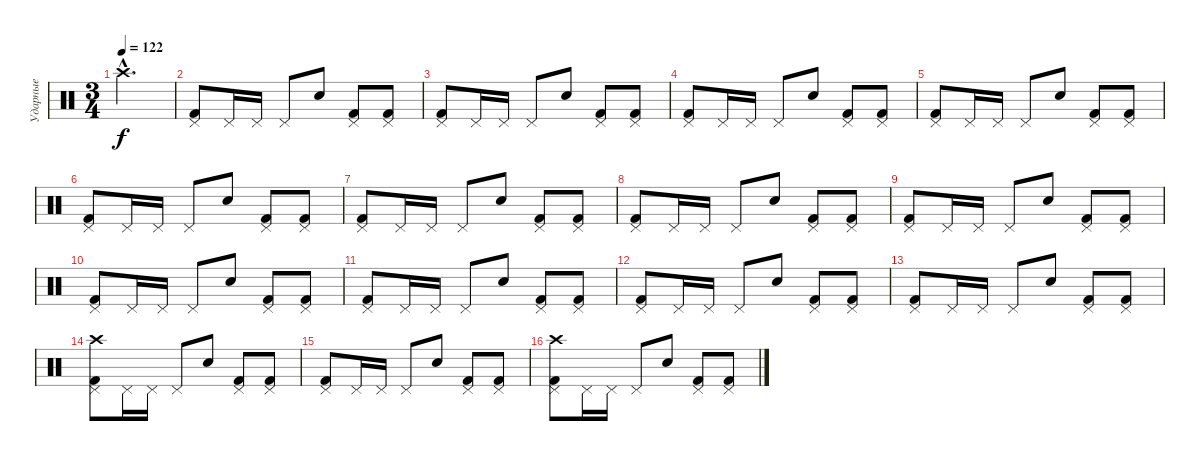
\track ("Ударные" "Ударные") {instrument percussion}
\staff {score}
\articulation defaults
\ts (3 4)
\tempo 122
\clef neutral
\ks c "Crash high (hit)"{hac}.2{d dy f}
|
("Kick (hit) 2" "Pedal Hi-Hat (hit)").8 "Pedal Hi-Hat (hit)".16 "Pedal Hi-Hat (hit)".16 "Pedal Hi-Hat (hit)".8 "Electric Snare (hit)".8 ("Kick (hit) 2" "Pedal Hi-Hat (hit)").8 ("Kick (hit) 2" "Pedal Hi-Hat (hit)").8 |
("Kick (hit) 2" "Pedal Hi-Hat (hit)").8 "Pedal Hi-Hat (hit)".16 "Pedal Hi-Hat (hit)".16 "Pedal Hi-Hat (hit)".8 "Electric Snare (hit)".8 ("Kick (hit) 2" "Pedal Hi-Hat (hit)").8 ("Kick (hit) 2" "Pedal Hi-Hat (hit)").8 |
("Kick (hit) 2" "Pedal Hi-Hat (hit)").8 "Pedal Hi-Hat (hit)".16 "Pedal Hi-Hat (hit)".16 "Pedal Hi-Hat (hit)".8 "Electric Snare (hit)".8 ("Kick (hit) 2" "Pedal Hi-Hat (hit)").8 ("Kick (hit) 2" "Pedal Hi-Hat (hit)").8 |
("Kick (hit) 2" "Pedal Hi-Hat (hit)").8 "Pedal Hi-Hat (hit)".16 "Pedal Hi-Hat (hit)".16 "Pedal Hi-Hat (hit)".8 "Electric Snare (hit)".8 ("Kick (hit) 2" "Pedal Hi-Hat (hit)").8 ("Kick (hit) 2" "Pedal Hi-Hat (hit)").8 |
("Kick (hit) 2" "Pedal Hi-Hat (hit)").8 "Pedal Hi-Hat (hit)".16 "Pedal Hi-Hat (hit)".16 "Pedal Hi-Hat (hit)".8 "Electric Snare (hit)".8 ("Kick (hit) 2" "Pedal Hi-Hat (hit)").8 ("Kick (hit) 2" "Pedal Hi-Hat (hit)").8 |
("Kick (hit) 2" "Pedal Hi-Hat (hit)").8 "Pedal Hi-Hat (hit)".16 "Pedal Hi-Hat (hit)".16 "Pedal Hi-Hat (hit)".8 "Electric Snare (hit)".8 ("Kick (hit) 2" "Pedal Hi-Hat (hit)").8 ("Kick (hit) 2" "Pedal Hi-Hat (hit)").8 |
("Kick (hit) 2" "Pedal Hi-Hat (hit)").8 "Pedal Hi-Hat (hit)".16 "Pedal Hi-Hat (hit)".16 "Pedal Hi-Hat (hit)".8 "Electric Snare (hit)".8 ("Kick (hit) 2" "Pedal Hi-Hat (hit)").8 ("Kick (hit) 2" "Pedal Hi-Hat (hit)").8 |
("Kick (hit) 2" "Pedal Hi-Hat (hit)").8 "Pedal Hi-Hat (hit)".16 "Pedal Hi-Hat (hit)".16 "Pedal Hi-Hat (hit)".8 "Electric Snare (hit)".8 ("Kick (hit) 2" "Pedal Hi-Hat (hit)").8 ("Kick (hit) 2" "Pedal Hi-Hat (hit)").8 |
("Kick (hit) 2" "Pedal Hi-Hat (hit)").8 "Pedal Hi-Hat (hit)".16 "Pedal Hi-Hat (hit)".16 "Pedal Hi-Hat (hit)".8 "Electric Snare (hit)".8 ("Kick (hit) 2" "Pedal Hi-Hat (hit)").8 ("Kick (hit) 2" "Pedal Hi-Hat (hit)").8 |
("Kick (hit) 2" "Pedal Hi-Hat (hit)").8 "Pedal Hi-Hat (hit)".16 "Pedal Hi-Hat (hit)".16 "Pedal Hi-Hat (hit)".8 "Electric Snare (hit)".8 ("Kick (hit) 2" "Pedal Hi-Hat (hit)").8 ("Kick (hit) 2" "Pedal Hi-Hat (hit)").8 |
("Kick (hit) 2" "Pedal Hi-Hat (hit)").8 "Pedal Hi-Hat (hit)".16 "Pedal Hi-Hat (hit)".16 "Pedal Hi-Hat (hit)".8 "Electric Snare (hit)".8 ("Kick (hit) 2" "Pedal Hi-Hat (hit)").8 ("Kick (hit) 2" "Pedal Hi-Hat (hit)").8 |
("Kick (hit) 2" "Pedal Hi-Hat (hit)").8 "Pedal Hi-Hat (hit)".16 "Pedal Hi-Hat (hit)".16 "Pedal Hi-Hat (hit)".8 "Electric Snare (hit)".8 ("Kick (hit) 2" "Pedal Hi-Hat (hit)").8 ("Kick (hit) 2" "Pedal Hi-Hat (hit)").8 |
("Crash high (hit)" "Kick (hit) 2" "Pedal Hi-Hat (hit)").8 "Pedal Hi-Hat (hit)".16 "Pedal Hi-Hat (hit)".16 "Pedal Hi-Hat (hit)".8 "Electric Snare (hit)".8 ("Kick (hit) 2" "Pedal Hi-Hat (hit)").8 ("Kick (hit) 2" "Pedal Hi-Hat (hit)").8 |
("Kick (hit) 2" "Pedal Hi-Hat (hit)").8 "Pedal Hi-Hat (hit)".16 "Pedal Hi-Hat (hit)".16 "Pedal Hi-Hat (hit)".8 "Electric Snare (hit)".8 ("Kick (hit) 2" "Pedal Hi-Hat (hit)").8 ("Kick (hit) 2" "Pedal Hi-Hat (hit)").8 |
("Crash high (hit)" "Kick (hit) 2" "Pedal Hi-Hat (hit)").8 "Pedal Hi-Hat (hit)".16 "Pedal Hi-Hat (hit)".16 "Pedal Hi-Hat (hit)".8 "Electric Snare (hit)".8 ("Kick (hit) 2" "Pedal Hi-Hat (hit)").8 ("Kick (hit) 2" "Pedal Hi-Hat (hit)").8
